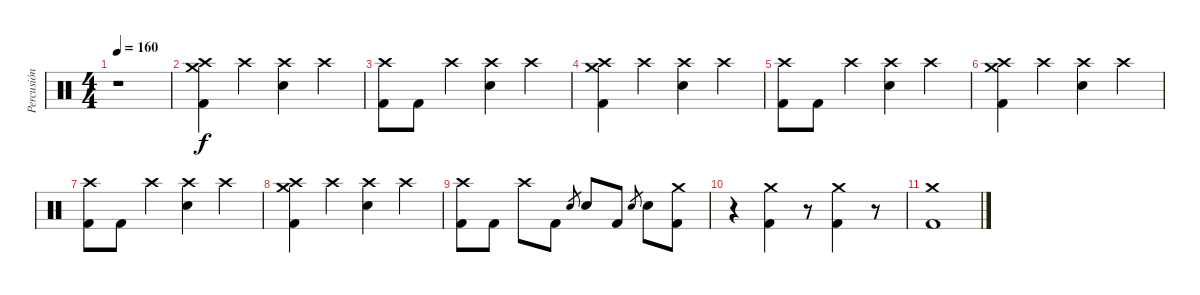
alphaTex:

\track ("Percusión" "Percusión") {instrument percussion}
\staff {score}
\articulation defaults
\ts (4 4)
\tempo 160
\clef neutral
\ks c
r.1{dy f} |
("Kick (hit) 2" "Crash high (hit)" "Crash medium (hit)").4 "Crash high (hit)".4 ("Crash high (hit)" "Snare (hit) 2").4 "Crash high (hit)".4 |
("Kick (hit) 2" "Crash high (hit)").8 "Kick (hit) 2".8 "Crash high (hit)".4 ("Crash high (hit)" "Snare (hit) 2").4 "Crash high (hit)".4 |
("Kick (hit) 2" "Crash high (hit)" "Crash medium (hit)").4 "Crash high (hit)".4 ("Crash high (hit)" "Snare (hit) 2").4 "Crash high (hit)".4 |
("Kick (hit) 2" "Crash high (hit)").8 "Kick (hit) 2".8 "Crash high (hit)".4 ("Crash high (hit)" "Snare (hit) 2").4 "Crash high (hit)".4 |
("Kick (hit) 2" "Crash high (hit)" "Crash medium (hit)").4 "Crash high (hit)".4 ("Crash high (hit)" "Snare (hit) 2").4 "Crash high (hit)".4 |
("Kick (hit) 2" "Crash high (hit)").8 "Kick (hit) 2".8 "Crash high (hit)".4 ("Crash high (hit)" "Snare (hit) 2").4 "Crash high (hit)".4 |
("Kick (hit) 2" "Crash high (hit)" "Crash medium (hit)").4 "Crash high (hit)".4 ("Crash high (hit)" "Snare (hit) 2").4 "Crash high (hit)".4 |
("Kick (hit) 2" "Crash high (hit)").8 "Kick (hit) 2".8 "Crash high (hit)".8 "Kick (hit) 2".8 "Snare (hit) 2".8{gr} "Snare (hit) 2".8 "Kick (hit) 2".8 "Snare (hit) 2".8{gr} "Snare (hit) 2".8 ("Crash medium (hit)" "Kick (hit) 2").8 |
r.4 ("Crash medium (hit)" "Kick (hit) 2").4 r.8 ("Crash medium (hit)" "Kick (hit) 2").4 r.8 |
("Crash medium (hit)" "Kick (hit) 2").1
